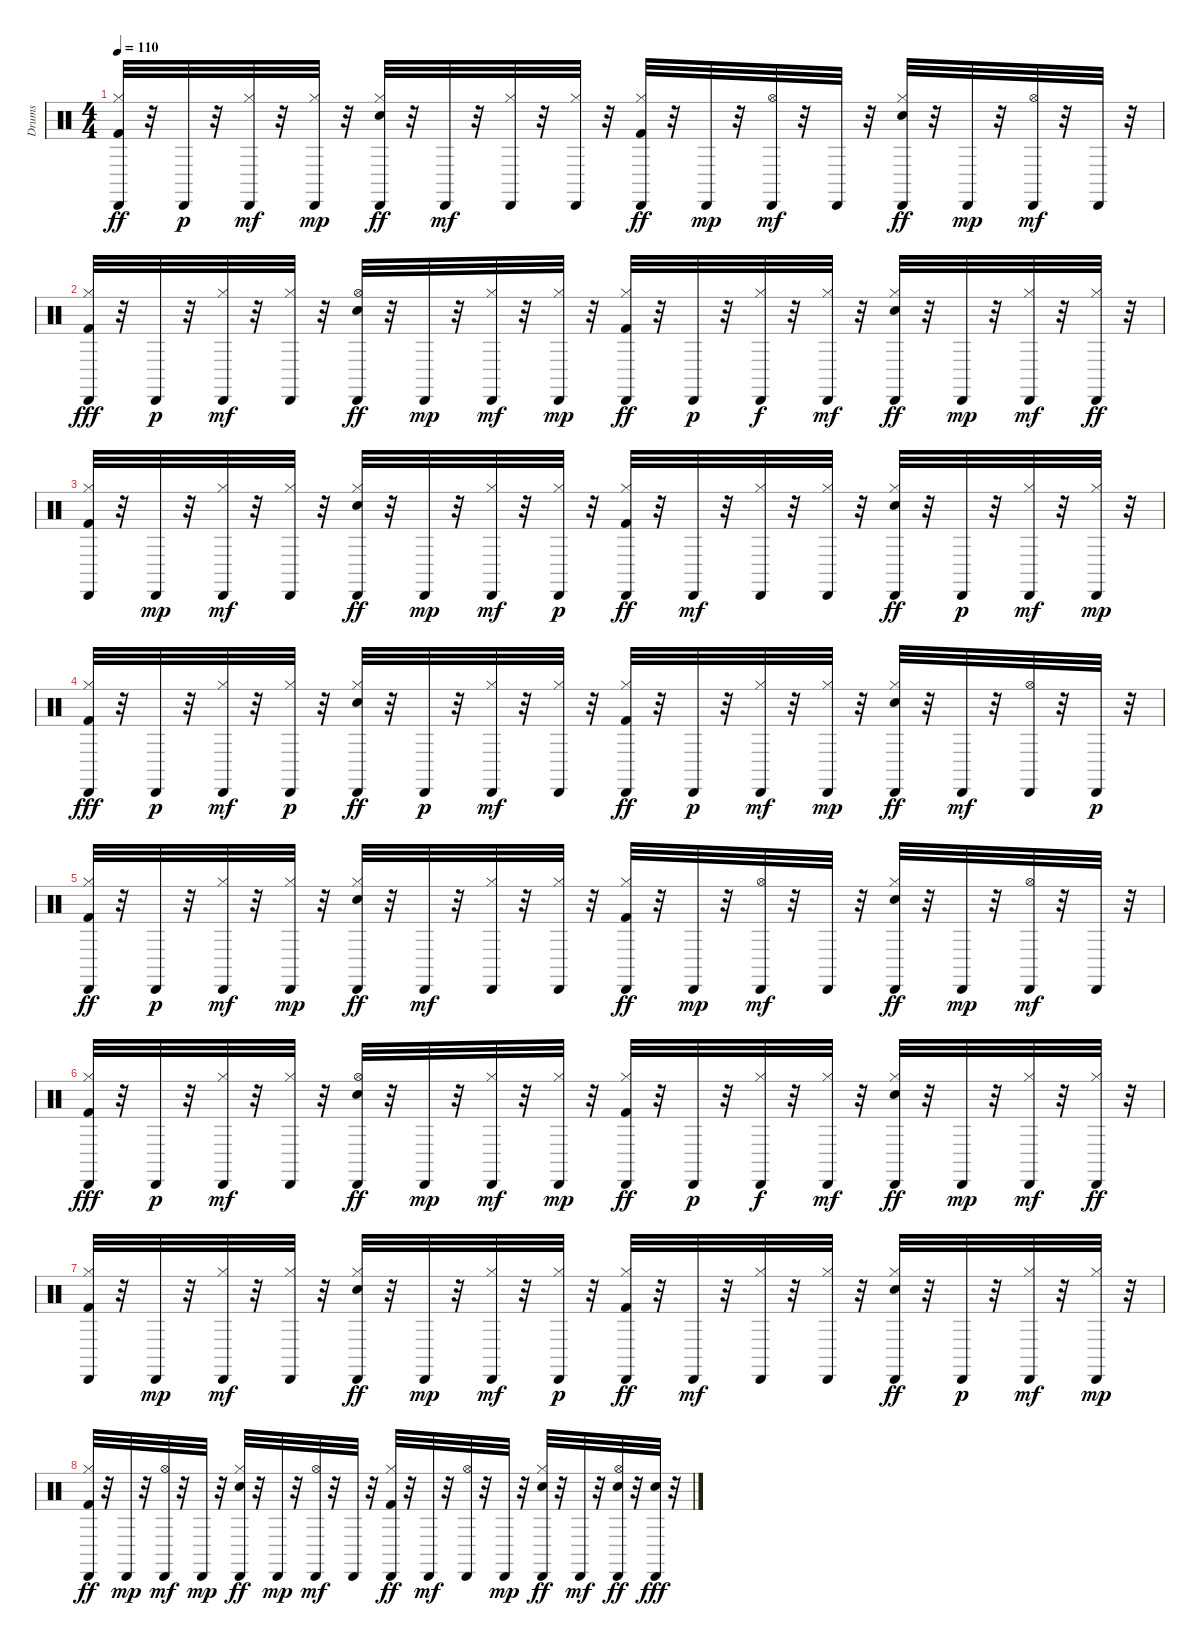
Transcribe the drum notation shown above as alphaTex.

\track ("Drums" "Drums") {instrument percussion}
\staff {score}
\articulation defaults
\ts (4 4)
\tempo 110
\clef neutral
\ks c
("Cabasa (hit)" "Hi-Hat (closed)" "Kick (hit) 2").32{dy ff} r.32 "Cabasa (hit)".32{dy p} r.32 ("Cabasa (hit)" "Hi-Hat (closed)").32{dy mf} r.32 ("Cabasa (hit)" "Hi-Hat (closed)").32{dy mp} r.32 ("Cabasa (hit)" "Hi-Hat (closed)" "Snare (hit) 2").32{dy ff} r.32 "Cabasa (hit)".32{dy mf} r.32 ("Cabasa (hit)" "Hi-Hat (closed)").32 r.32 ("Cabasa (hit)" "Hi-Hat (closed)").32 r.32 ("Cabasa (hit)" "Hi-Hat (closed)" "Kick (hit) 2").32{dy ff} r.32 "Cabasa (hit)".32{dy mp} r.32 ("Hi-Hat (open)" "Cabasa (hit)").32{dy mf} r.32 "Cabasa (hit)".32 r.32 ("Cabasa (hit)" "Hi-Hat (closed)" "Snare (hit) 2").32{dy ff} r.32 "Cabasa (hit)".32{dy mp} r.32 ("Hi-Hat (open)" "Cabasa (hit)").32{dy mf} r.32 "Cabasa (hit)".32 r.32 |
("Cabasa (hit)" "Hi-Hat (closed)" "Kick (hit) 2").32{dy fff} r.32 "Cabasa (hit)".32{dy p} r.32 ("Cabasa (hit)" "Hi-Hat (closed)").32{dy mf} r.32 ("Cabasa (hit)" "Hi-Hat (closed)").32 r.32 ("Hi-Hat (open)" "Cabasa (hit)" "Snare (hit) 2").32{dy ff} r.32 "Cabasa (hit)".32{dy mp} r.32 ("Cabasa (hit)" "Hi-Hat (closed)").32{dy mf} r.32 ("Cabasa (hit)" "Hi-Hat (closed)").32{dy mp} r.32 ("Cabasa (hit)" "Hi-Hat (closed)" "Kick (hit) 2").32{dy ff} r.32 "Cabasa (hit)".32{dy p} r.32 ("Cabasa (hit)" "Hi-Hat (closed)").32{dy f} r.32 ("Cabasa (hit)" "Hi-Hat (closed)").32{dy mf} r.32 ("Cabasa (hit)" "Hi-Hat (closed)" "Snare (hit) 2").32{dy ff} r.32 "Cabasa (hit)".32{dy mp} r.32 ("Cabasa (hit)" "Hi-Hat (closed)").32{dy mf} r.32 ("Cabasa (hit)" "Hi-Hat (closed)").32{dy ff} r.32 |
("Cabasa (hit)" "Hi-Hat (closed)" "Kick (hit) 2").32 r.32 "Cabasa (hit)".32{dy mp} r.32 ("Cabasa (hit)" "Hi-Hat (closed)").32{dy mf} r.32 ("Cabasa (hit)" "Hi-Hat (closed)").32 r.32 ("Cabasa (hit)" "Hi-Hat (closed)" "Snare (hit) 2").32{dy ff} r.32 "Cabasa (hit)".32{dy mp} r.32 ("Cabasa (hit)" "Hi-Hat (closed)").32{dy mf} r.32 ("Cabasa (hit)" "Hi-Hat (closed)").32{dy p} r.32 ("Cabasa (hit)" "Hi-Hat (closed)" "Kick (hit) 2").32{dy ff} r.32 "Cabasa (hit)".32{dy mf} r.32 ("Cabasa (hit)" "Hi-Hat (closed)").32 r.32 ("Cabasa (hit)" "Hi-Hat (closed)").32 r.32 ("Cabasa (hit)" "Hi-Hat (closed)" "Snare (hit) 2").32{dy ff} r.32 "Cabasa (hit)".32{dy p} r.32 ("Cabasa (hit)" "Hi-Hat (closed)").32{dy mf} r.32 ("Cabasa (hit)" "Hi-Hat (closed)").32{dy mp} r.32 |
("Cabasa (hit)" "Hi-Hat (closed)" "Kick (hit) 2").32{dy fff} r.32 "Cabasa (hit)".32{dy p} r.32 ("Cabasa (hit)" "Hi-Hat (closed)").32{dy mf} r.32 ("Cabasa (hit)" "Hi-Hat (closed)").32{dy p} r.32 ("Cabasa (hit)" "Hi-Hat (closed)" "Snare (hit) 2").32{dy ff} r.32 "Cabasa (hit)".32{dy p} r.32 ("Cabasa (hit)" "Hi-Hat (closed)").32{dy mf} r.32 ("Cabasa (hit)" "Hi-Hat (closed)").32 r.32 ("Cabasa (hit)" "Hi-Hat (closed)" "Kick (hit) 2").32{dy ff} r.32 "Cabasa (hit)".32{dy p} r.32 ("Cabasa (hit)" "Hi-Hat (closed)").32{dy mf} r.32 ("Cabasa (hit)" "Hi-Hat (closed)").32{dy mp} r.32 ("Cabasa (hit)" "Hi-Hat (closed)" "Snare (hit) 2").32{dy ff} r.32 "Cabasa (hit)".32{dy mf} r.32 ("Hi-Hat (open)" "Cabasa (hit)").32 r.32 "Cabasa (hit)".32{dy p} r.32 |
("Cabasa (hit)" "Hi-Hat (closed)" "Kick (hit) 2").32{dy ff} r.32 "Cabasa (hit)".32{dy p} r.32 ("Cabasa (hit)" "Hi-Hat (closed)").32{dy mf} r.32 ("Cabasa (hit)" "Hi-Hat (closed)").32{dy mp} r.32 ("Cabasa (hit)" "Hi-Hat (closed)" "Snare (hit) 2").32{dy ff} r.32 "Cabasa (hit)".32{dy mf} r.32 ("Cabasa (hit)" "Hi-Hat (closed)").32 r.32 ("Cabasa (hit)" "Hi-Hat (closed)").32 r.32 ("Cabasa (hit)" "Hi-Hat (closed)" "Kick (hit) 2").32{dy ff} r.32 "Cabasa (hit)".32{dy mp} r.32 ("Hi-Hat (open)" "Cabasa (hit)").32{dy mf} r.32 "Cabasa (hit)".32 r.32 ("Cabasa (hit)" "Hi-Hat (closed)" "Snare (hit) 2").32{dy ff} r.32 "Cabasa (hit)".32{dy mp} r.32 ("Hi-Hat (open)" "Cabasa (hit)").32{dy mf} r.32 "Cabasa (hit)".32 r.32 |
("Cabasa (hit)" "Hi-Hat (closed)" "Kick (hit) 2").32{dy fff} r.32 "Cabasa (hit)".32{dy p} r.32 ("Cabasa (hit)" "Hi-Hat (closed)").32{dy mf} r.32 ("Cabasa (hit)" "Hi-Hat (closed)").32 r.32 ("Hi-Hat (open)" "Cabasa (hit)" "Snare (hit) 2").32{dy ff} r.32 "Cabasa (hit)".32{dy mp} r.32 ("Cabasa (hit)" "Hi-Hat (closed)").32{dy mf} r.32 ("Cabasa (hit)" "Hi-Hat (closed)").32{dy mp} r.32 ("Cabasa (hit)" "Hi-Hat (closed)" "Kick (hit) 2").32{dy ff} r.32 "Cabasa (hit)".32{dy p} r.32 ("Cabasa (hit)" "Hi-Hat (closed)").32{dy f} r.32 ("Cabasa (hit)" "Hi-Hat (closed)").32{dy mf} r.32 ("Cabasa (hit)" "Hi-Hat (closed)" "Snare (hit) 2").32{dy ff} r.32 "Cabasa (hit)".32{dy mp} r.32 ("Cabasa (hit)" "Hi-Hat (closed)").32{dy mf} r.32 ("Cabasa (hit)" "Hi-Hat (closed)").32{dy ff} r.32 |
("Cabasa (hit)" "Hi-Hat (closed)" "Kick (hit) 2").32 r.32 "Cabasa (hit)".32{dy mp} r.32 ("Cabasa (hit)" "Hi-Hat (closed)").32{dy mf} r.32 ("Cabasa (hit)" "Hi-Hat (closed)").32 r.32 ("Cabasa (hit)" "Hi-Hat (closed)" "Snare (hit) 2").32{dy ff} r.32 "Cabasa (hit)".32{dy mp} r.32 ("Cabasa (hit)" "Hi-Hat (closed)").32{dy mf} r.32 ("Cabasa (hit)" "Hi-Hat (closed)").32{dy p} r.32 ("Cabasa (hit)" "Hi-Hat (closed)" "Kick (hit) 2").32{dy ff} r.32 "Cabasa (hit)".32{dy mf} r.32 ("Cabasa (hit)" "Hi-Hat (closed)").32 r.32 ("Cabasa (hit)" "Hi-Hat (closed)").32 r.32 ("Cabasa (hit)" "Hi-Hat (closed)" "Snare (hit) 2").32{dy ff} r.32 "Cabasa (hit)".32{dy p} r.32 ("Cabasa (hit)" "Hi-Hat (closed)").32{dy mf} r.32 ("Cabasa (hit)" "Hi-Hat (closed)").32{dy mp} r.32 |
("Cabasa (hit)" "Hi-Hat (closed)" "Kick (hit) 2").32{dy ff} r.32 "Cabasa (hit)".32{dy mp} r.32 ("Hi-Hat (open)" "Cabasa (hit)").32{dy mf} r.32 "Cabasa (hit)".32{dy mp} r.32 ("Cabasa (hit)" "Hi-Hat (closed)" "Snare (hit) 2").32{dy ff} r.32 "Cabasa (hit)".32{dy mp} r.32 ("Hi-Hat (open)" "Cabasa (hit)").32{dy mf} r.32 "Cabasa (hit)".32 r.32 ("Cabasa (hit)" "Hi-Hat (closed)" "Kick (hit) 2").32{dy ff} r.32 "Cabasa (hit)".32{dy mf} r.32 ("Hi-Hat (open)" "Cabasa (hit)").32 r.32 "Cabasa (hit)".32{dy mp} r.32 ("Cabasa (hit)" "Hi-Hat (closed)" "Snare (hit) 2").32{dy ff} r.32 "Cabasa (hit)".32{dy mf} r.32 ("Hi-Hat (open)" "Cabasa (hit)" "Snare (hit) 2").32{dy ff} r.32 ("Cabasa (hit)" "Snare (hit) 2").32{dy fff} r.32
